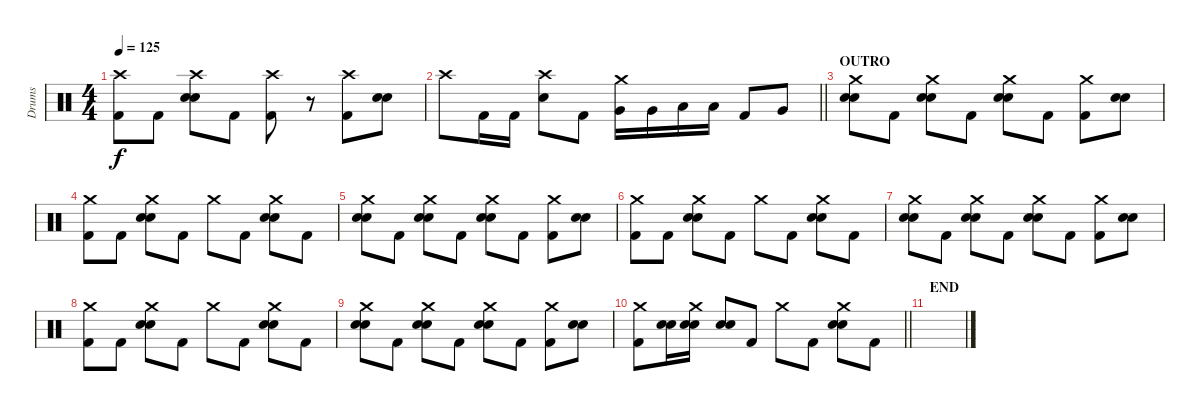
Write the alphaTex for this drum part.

\track ("Drums" "Drums") {instrument percussion}
\staff {score}
\articulation defaults
\ts (4 4)
\tempo 125
\clef neutral
\ks c
("Crash high (hit)" "Kick (hit) 2").8{dy f} "Kick (hit) 2".8 ("Crash high (hit)" "Snare (hit) 2" "Electric Snare (hit)").8 "Kick (hit) 2".8 ("Crash high (hit)" "Kick (hit) 2").8 r.8 ("Crash high (hit)" "Kick (hit) 2").8 ("Snare (hit) 2" "Electric Snare (hit)").8 |
\barLineRight lightlight "Crash high (hit)".8 "Kick (hit) 2".16 "Kick (hit) 2".16
("Crash high (hit)" "Snare (hit) 2").8 "Kick (hit) 2".8 ("Crash medium (hit)" "Very Low Tom (hit)").16 "Very Low Tom (hit)".16 "Low Floor Tom (hit)".16 "Low Floor Tom (hit)".16 "Kick (hit) 2".8 "Very Low Tom (hit)".8 |
\section ("" "OUTRO")
("Crash medium (hit)" "Snare (hit) 2" "Electric Snare (hit)").8 "Kick (hit) 2".8 ("Crash medium (hit)" "Snare (hit) 2" "Electric Snare (hit)").8 "Kick (hit) 2".8 ("Crash medium (hit)" "Snare (hit) 2" "Electric Snare (hit)").8 "Kick (hit) 2".8 ("Crash medium (hit)" "Kick (hit) 2").8 ("Snare (hit) 2" "Electric Snare (hit)").8 |
("Crash medium (hit)" "Kick (hit) 2").8 "Kick (hit) 2".8 ("Crash medium (hit)" "Snare (hit) 2" "Electric Snare (hit)").8 "Kick (hit) 2".8 "Crash medium (hit)".8 "Kick (hit) 2".8 ("Crash medium (hit)" "Snare (hit) 2" "Electric Snare (hit)").8 "Kick (hit) 2".8 |
("Crash medium (hit)" "Snare (hit) 2" "Electric Snare (hit)").8 "Kick (hit) 2".8 ("Crash medium (hit)" "Snare (hit) 2" "Electric Snare (hit)").8 "Kick (hit) 2".8 ("Crash medium (hit)" "Snare (hit) 2" "Electric Snare (hit)").8 "Kick (hit) 2".8 ("Crash medium (hit)" "Kick (hit) 2").8 ("Snare (hit) 2" "Electric Snare (hit)").8 |
("Crash medium (hit)" "Kick (hit) 2").8 "Kick (hit) 2".8 ("Crash medium (hit)" "Snare (hit) 2" "Electric Snare (hit)").8 "Kick (hit) 2".8 "Crash medium (hit)".8 "Kick (hit) 2".8 ("Crash medium (hit)" "Snare (hit) 2" "Electric Snare (hit)").8 "Kick (hit) 2".8 |
("Crash medium (hit)" "Snare (hit) 2" "Electric Snare (hit)").8 "Kick (hit) 2".8 ("Crash medium (hit)" "Snare (hit) 2" "Electric Snare (hit)").8 "Kick (hit) 2".8 ("Crash medium (hit)" "Snare (hit) 2" "Electric Snare (hit)").8 "Kick (hit) 2".8 ("Crash medium (hit)" "Kick (hit) 2").8 ("Snare (hit) 2" "Electric Snare (hit)").8 |
("Crash medium (hit)" "Kick (hit) 2").8 "Kick (hit) 2".8 ("Crash medium (hit)" "Snare (hit) 2" "Electric Snare (hit)").8 "Kick (hit) 2".8 "Crash medium (hit)".8 "Kick (hit) 2".8 ("Crash medium (hit)" "Snare (hit) 2" "Electric Snare (hit)").8 "Kick (hit) 2".8 |
("Crash medium (hit)" "Snare (hit) 2" "Electric Snare (hit)").8 "Kick (hit) 2".8 ("Crash medium (hit)" "Snare (hit) 2" "Electric Snare (hit)").8 "Kick (hit) 2".8 ("Crash medium (hit)" "Snare (hit) 2" "Electric Snare (hit)").8 "Kick (hit) 2".8 ("Crash medium (hit)" "Kick (hit) 2").8 ("Snare (hit) 2" "Electric Snare (hit)").8 |
\barLineRight lightlight
("Crash medium (hit)" "Kick (hit) 2").8 ("Snare (hit) 2" "Electric Snare (hit)").16 ("Crash medium (hit)" "Snare (hit) 2" "Electric Snare (hit)").16 ("Snare (hit) 2" "Electric Snare (hit)").8 "Kick (hit) 2".8 "Crash medium (hit)".8 "Kick (hit) 2".8 ("Crash medium (hit)" "Snare (hit) 2" "Electric Snare (hit)").8 "Kick (hit) 2".8 |
\section ("" "END")
